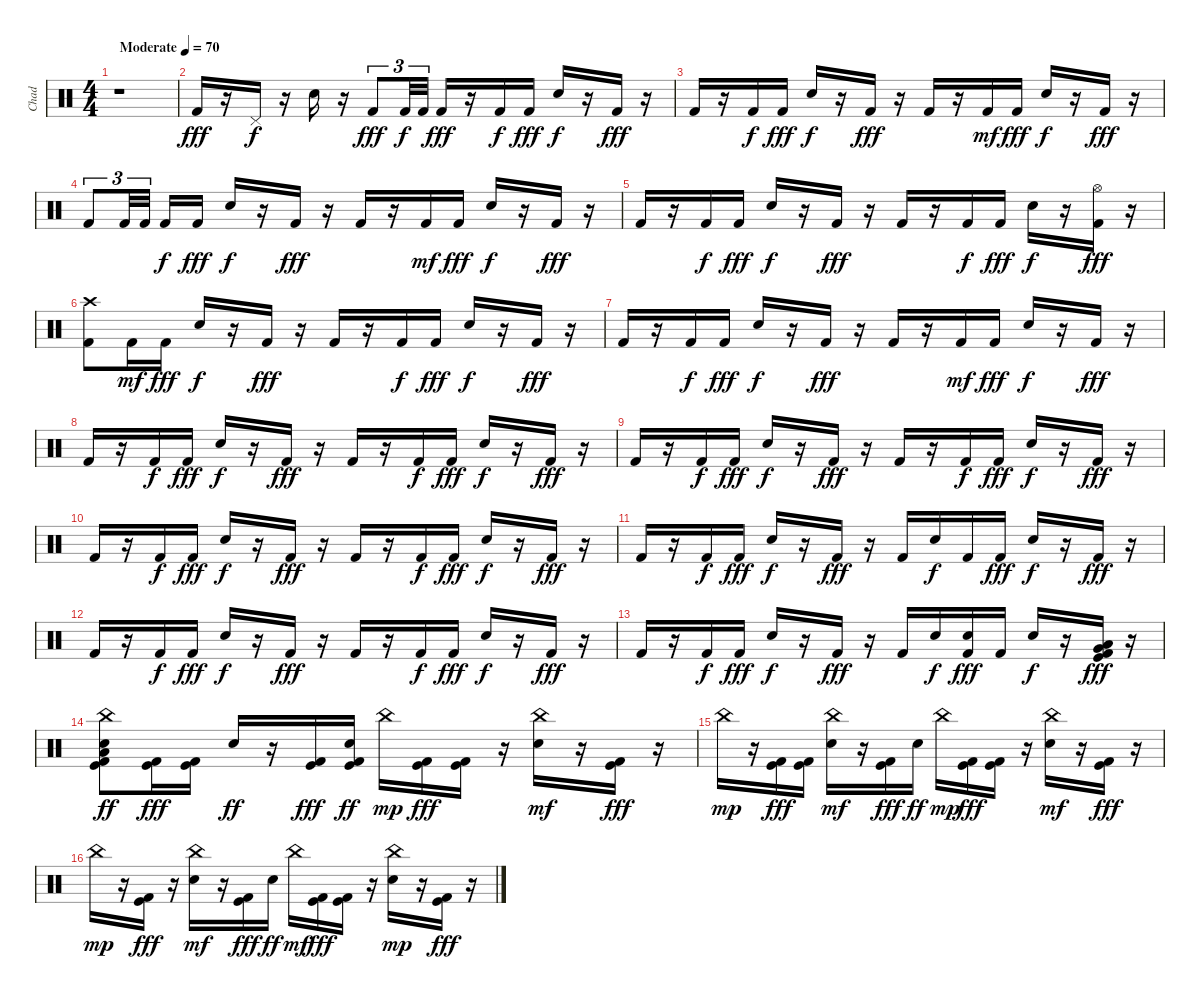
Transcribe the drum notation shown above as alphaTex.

\track ("Chad" "Chad") {instrument percussion}
\staff {score}
\articulation defaults
\ts (4 4)
\tempo (70 "Moderate")
\clef neutral
\ks c
r.1{dy fff} |
"Kick (hit) 2".16 r.16 "Pedal Hi-Hat (hit)".16{dy f} r.16 "Snare (hit) 2".16 r.16 "Kick (hit) 2".8{tu (3 2) dy fff} "Kick (hit) 2".32{tu (3 2) dy f} "Kick (hit) 2".32{tu (3 2)} "Kick (hit) 2".16{dy fff} r.16 "Kick (hit) 2".16{dy f} "Kick (hit) 2".16{dy fff} "Snare (hit) 2".16{dy f} r.16 "Kick (hit) 2".16{dy fff} r.16 |
"Kick (hit) 2".16 r.16 "Kick (hit) 2".16{dy f} "Kick (hit) 2".16{dy fff} "Snare (hit) 2".16{dy f} r.16 "Kick (hit) 2".16{dy fff} r.16 "Kick (hit) 2".16 r.16 "Kick (hit) 2".16{dy mf} "Kick (hit) 2".16{dy fff} "Snare (hit) 2".16{dy f} r.16 "Kick (hit) 2".16{dy fff} r.16 |
"Kick (hit) 2".8{tu (3 2)} "Kick (hit) 2".32{tu (3 2)} "Kick (hit) 2".32{tu (3 2) beam splitsecondary} "Kick (hit) 2".16{dy f} "Kick (hit) 2".16{dy fff} "Snare (hit) 2".16{dy f} r.16 "Kick (hit) 2".16{dy fff} r.16 "Kick (hit) 2".16 r.16 "Kick (hit) 2".16{dy mf} "Kick (hit) 2".16{dy fff} "Snare (hit) 2".16{dy f} r.16 "Kick (hit) 2".16{dy fff} r.16 |
"Kick (hit) 2".16 r.16 "Kick (hit) 2".16{dy f} "Kick (hit) 2".16{dy fff} "Snare (hit) 2".16{dy f} r.16 "Kick (hit) 2".16{dy fff} r.16 "Kick (hit) 2".16 r.16 "Kick (hit) 2".16{dy f} "Kick (hit) 2".16{dy fff} "Snare (hit) 2".16{dy f} r.16 ("Kick (hit) 2" "Hi-Hat (open)").16{dy fff} r.16 |
("Kick (hit) 2" "Crash high (hit)").8 "Kick (hit) 2".16{dy mf} "Kick (hit) 2".16{dy fff} "Snare (hit) 2".16{dy f} r.16 "Kick (hit) 2".16{dy fff} r.16 "Kick (hit) 2".16 r.16 "Kick (hit) 2".16{dy f} "Kick (hit) 2".16{dy fff} "Snare (hit) 2".16{dy f} r.16 "Kick (hit) 2".16{dy fff} r.16 |
"Kick (hit) 2".16 r.16 "Kick (hit) 2".16{dy f} "Kick (hit) 2".16{dy fff} "Snare (hit) 2".16{dy f} r.16 "Kick (hit) 2".16{dy fff} r.16 "Kick (hit) 2".16 r.16 "Kick (hit) 2".16{dy mf} "Kick (hit) 2".16{dy fff} "Snare (hit) 2".16{dy f} r.16 "Kick (hit) 2".16{dy fff} r.16 |
"Kick (hit) 2".16 r.16 "Kick (hit) 2".16{dy f} "Kick (hit) 2".16{dy fff} "Snare (hit) 2".16{dy f} r.16 "Kick (hit) 2".16{dy fff} r.16 "Kick (hit) 2".16 r.16 "Kick (hit) 2".16{dy f} "Kick (hit) 2".16{dy fff} "Snare (hit) 2".16{dy f} r.16 "Kick (hit) 2".16{dy fff} r.16 |
"Kick (hit) 2".16 r.16 "Kick (hit) 2".16{dy f} "Kick (hit) 2".16{dy fff} "Snare (hit) 2".16{dy f} r.16 "Kick (hit) 2".16{dy fff} r.16 "Kick (hit) 2".16 r.16 "Kick (hit) 2".16{dy f} "Kick (hit) 2".16{dy fff} "Snare (hit) 2".16{dy f} r.16 "Kick (hit) 2".16{dy fff} r.16 |
"Kick (hit) 2".16 r.16 "Kick (hit) 2".16{dy f} "Kick (hit) 2".16{dy fff} "Snare (hit) 2".16{dy f} r.16 "Kick (hit) 2".16{dy fff} r.16 "Kick (hit) 2".16 r.16 "Kick (hit) 2".16{dy f} "Kick (hit) 2".16{dy fff} "Snare (hit) 2".16{dy f} r.16 "Kick (hit) 2".16{dy fff} r.16 |
"Kick (hit) 2".16 r.16 "Kick (hit) 2".16{dy f} "Kick (hit) 2".16{dy fff} "Snare (hit) 2".16{dy f} r.16 "Kick (hit) 2".16{dy fff} r.16 "Kick (hit) 2".16 "Snare (hit) 2".16{dy f} "Kick (hit) 2".16 "Kick (hit) 2".16{dy fff} "Snare (hit) 2".16{dy f} r.16 "Kick (hit) 2".16{dy fff} r.16 |
"Kick (hit) 2".16 r.16 "Kick (hit) 2".16{dy f} "Kick (hit) 2".16{dy fff} "Snare (hit) 2".16{dy f} r.16 "Kick (hit) 2".16{dy fff} r.16 "Kick (hit) 2".16 r.16 "Kick (hit) 2".16{dy f} "Kick (hit) 2".16{dy fff} "Snare (hit) 2".16{dy f} r.16 "Kick (hit) 2".16{dy fff} r.16 |
"Kick (hit) 2".16 r.16 "Kick (hit) 2".16{dy f} "Kick (hit) 2".16{dy fff} "Snare (hit) 2".16{dy f} r.16 "Kick (hit) 2".16{dy fff} r.16 "Kick (hit) 2".16 "Hand Clap (hit)".16{dy f} ("Kick (hit) 2" "Snare (hit) 2").16{dy fff} "Kick (hit) 2".16 "Snare (hit) 2".16{dy f} r.16 ("Kick (hit)" "Kick (hit) 2" "Low Floor Tom (hit)" "Very Low Tom (hit)").16{dy fff} r.16 |
("Kick (hit)" "Kick (hit) 2" "Snare (hit) 2" "Low Floor Tom (hit)" "China (hit)").8{dy ff} ("Kick (hit)" "Kick (hit) 2").16{dy fff} ("Kick (hit)" "Kick (hit) 2").16 "Snare (hit) 2".16{dy ff} r.16 ("Kick (hit)" "Kick (hit) 2").16{dy fff} ("Kick (hit)" "Kick (hit) 2" "Snare (hit) 2").16{dy ff} "China (hit)".16{dy mp} ("Kick (hit)" "Kick (hit) 2").16{dy fff} ("Kick (hit)" "Kick (hit) 2").16 r.16 ("Snare (hit) 2" "China (hit)").16{dy mf} r.16 ("Kick (hit)" "Kick (hit) 2").16{dy fff} r.16 |
"China (hit)".16{dy mp} r.16 ("Kick (hit)" "Kick (hit) 2").16{dy fff} ("Kick (hit)" "Kick (hit) 2").16 ("Snare (hit) 2" "China (hit)").16{dy mf} r.16 ("Kick (hit)" "Kick (hit) 2").16{dy fff} "Snare (hit) 2".16{dy ff} "China (hit)".16{dy mp} ("Kick (hit)" "Kick (hit) 2").16{dy fff} ("Kick (hit)" "Kick (hit) 2").16 r.16 ("Snare (hit) 2" "China (hit)").16{dy mf} r.16 ("Kick (hit)" "Kick (hit) 2").16{dy fff} r.16 |
"China (hit)".16{dy mp} r.16 ("Kick (hit)" "Kick (hit) 2").16{dy fff} r.16 ("Snare (hit) 2" "China (hit)").16{dy mf} r.16 ("Kick (hit)" "Kick (hit) 2").16{dy fff} "Snare (hit) 2".16{dy ff} "China (hit)".16{dy mf} ("Kick (hit)" "Kick (hit) 2").16{dy fff} ("Kick (hit)" "Kick (hit) 2").16 r.16 ("Snare (hit) 2" "China (hit)").16{dy mp} r.16 ("Kick (hit)" "Kick (hit) 2").16{dy fff} r.16
